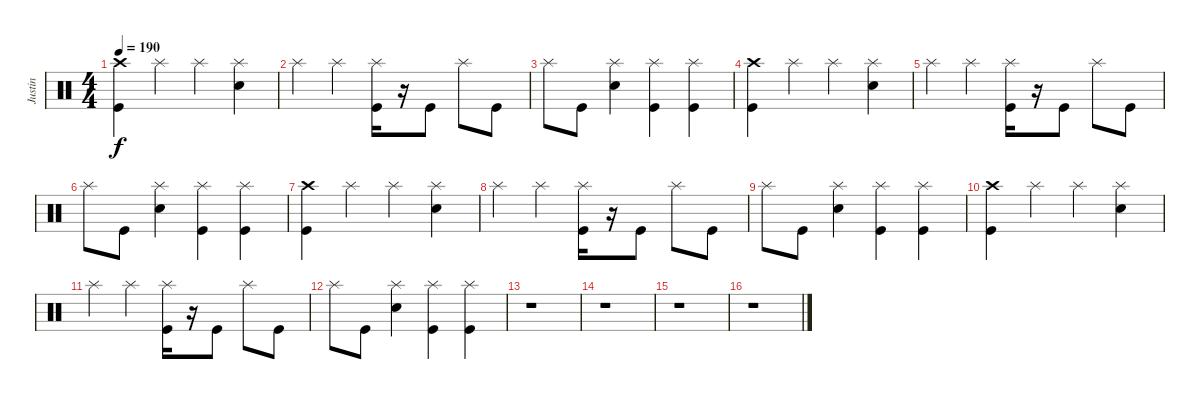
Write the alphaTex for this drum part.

\track ("Justin" "Justin") {instrument percussion}
\staff {score}
\articulation defaults
\ts (4 4)
\tempo 190
\clef neutral
\ks c
("Crash high (hit)" "Kick (hit)").4{dy f} "Splash (hit)".4 "Splash (hit)".4 ("Splash (hit)" "Electric Snare (hit)").4 |
"Splash (hit)".4 "Splash (hit)".4 ("Splash (hit)" "Kick (hit)").16 r.16 "Kick (hit)".8 "Splash (hit)".8 "Kick (hit)".8 |
"Splash (hit)".8 "Kick (hit)".8 ("Splash (hit)" "Electric Snare (hit)").4 ("Splash (hit)" "Kick (hit)").4 ("Splash (hit)" "Kick (hit)").4 |
("Crash high (hit)" "Kick (hit)").4 "Splash (hit)".4 "Splash (hit)".4 ("Splash (hit)" "Electric Snare (hit)").4 |
"Splash (hit)".4 "Splash (hit)".4 ("Splash (hit)" "Kick (hit)").16 r.16 "Kick (hit)".8 "Splash (hit)".8 "Kick (hit)".8 |
"Splash (hit)".8 "Kick (hit)".8 ("Splash (hit)" "Electric Snare (hit)").4 ("Splash (hit)" "Kick (hit)").4 ("Splash (hit)" "Kick (hit)").4 |
("Crash high (hit)" "Kick (hit)").4 "Splash (hit)".4 "Splash (hit)".4 ("Splash (hit)" "Electric Snare (hit)").4 |
"Splash (hit)".4 "Splash (hit)".4 ("Splash (hit)" "Kick (hit)").16 r.16 "Kick (hit)".8 "Splash (hit)".8 "Kick (hit)".8 |
"Splash (hit)".8 "Kick (hit)".8 ("Splash (hit)" "Electric Snare (hit)").4 ("Splash (hit)" "Kick (hit)").4 ("Splash (hit)" "Kick (hit)").4 |
("Crash high (hit)" "Kick (hit)").4 "Splash (hit)".4 "Splash (hit)".4 ("Splash (hit)" "Electric Snare (hit)").4 |
"Splash (hit)".4 "Splash (hit)".4 ("Splash (hit)" "Kick (hit)").16 r.16 "Kick (hit)".8 "Splash (hit)".8 "Kick (hit)".8 |
"Splash (hit)".8 "Kick (hit)".8 ("Splash (hit)" "Electric Snare (hit)").4 ("Splash (hit)" "Kick (hit)").4 ("Splash (hit)" "Kick (hit)").4 |
r.1 |
r.1 |
r.1 |
r.1
